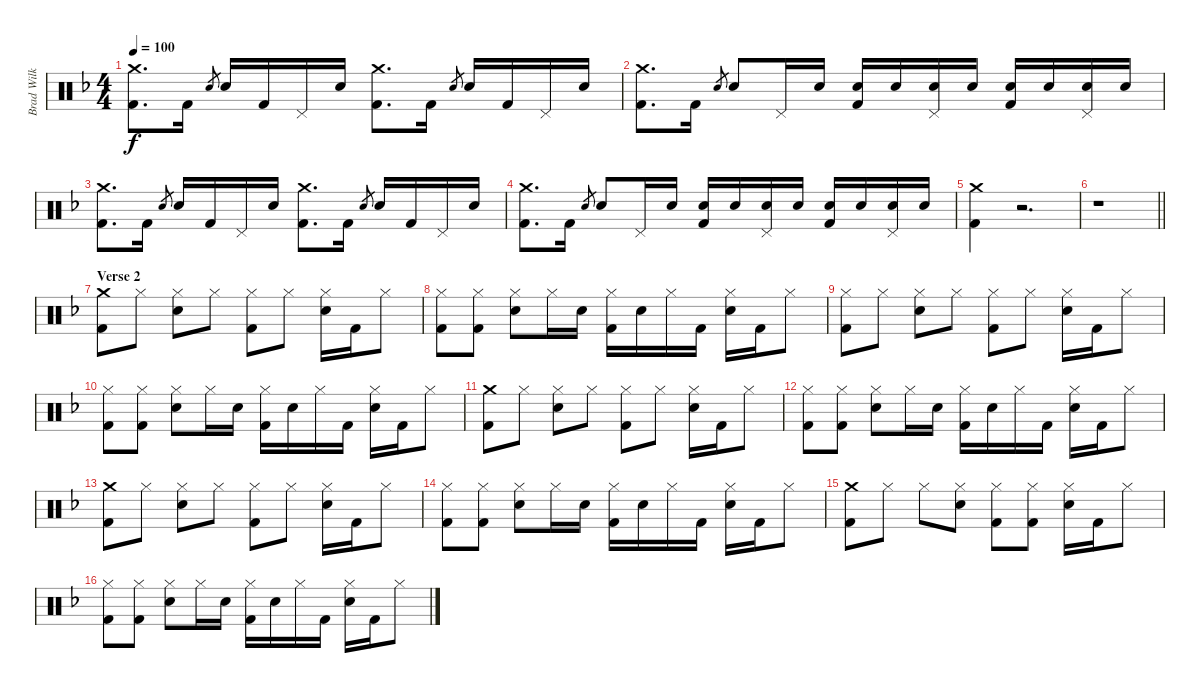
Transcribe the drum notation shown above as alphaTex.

\track ("Brad Wilk" "Brad Wilk") {instrument percussion}
\staff {score}
\articulation defaults
\ts (4 4)
\tempo 100
\clef neutral
\ks f
("Crash medium (hit)" "Kick (hit) 2").8{d dy f} "Kick (hit) 2".16 "Electric Snare (hit)".8{gr} "Electric Snare (hit)".16 "Kick (hit) 2".16 "Pedal Hi-Hat (hit)".16 "Electric Snare (hit)".16 ("Crash medium (hit)" "Kick (hit) 2").8{d} "Kick (hit) 2".16 "Electric Snare (hit)".8{gr} "Electric Snare (hit)".16 "Kick (hit) 2".16 "Pedal Hi-Hat (hit)".16 "Electric Snare (hit)".16 |
("Crash medium (hit)" "Kick (hit) 2").8{d} "Kick (hit) 2".16 "Electric Snare (hit)".8{gr} "Electric Snare (hit)".8 "Pedal Hi-Hat (hit)".16 "Electric Snare (hit)".16 ("Electric Snare (hit)" "Kick (hit) 2").16 "Electric Snare (hit)".16 ("Pedal Hi-Hat (hit)" "Electric Snare (hit)").16 "Electric Snare (hit)".16 ("Electric Snare (hit)" "Kick (hit) 2").16 "Electric Snare (hit)".16 ("Pedal Hi-Hat (hit)" "Electric Snare (hit)").16 "Electric Snare (hit)".16 |
("Crash medium (hit)" "Kick (hit) 2").8{d} "Kick (hit) 2".16 "Electric Snare (hit)".8{gr} "Electric Snare (hit)".16 "Kick (hit) 2".16 "Pedal Hi-Hat (hit)".16 "Electric Snare (hit)".16 ("Crash medium (hit)" "Kick (hit) 2").8{d} "Kick (hit) 2".16 "Electric Snare (hit)".8{gr} "Electric Snare (hit)".16 "Kick (hit) 2".16 "Pedal Hi-Hat (hit)".16 "Electric Snare (hit)".16 |
("Crash medium (hit)" "Kick (hit) 2").8{d} "Kick (hit) 2".16 "Electric Snare (hit)".8{gr} "Electric Snare (hit)".8 "Pedal Hi-Hat (hit)".16 "Electric Snare (hit)".16 ("Electric Snare (hit)" "Kick (hit) 2").16 "Electric Snare (hit)".16 ("Pedal Hi-Hat (hit)" "Electric Snare (hit)").16 "Electric Snare (hit)".16 ("Electric Snare (hit)" "Kick (hit) 2").16 "Electric Snare (hit)".16 ("Pedal Hi-Hat (hit)" "Electric Snare (hit)").16 "Electric Snare (hit)".16 |
("Crash medium (hit)" "Kick (hit) 2").4 r.2{d} |
\barLineRight lightlight
r.1 |
\section ("" "Verse 2")
("Crash medium (hit)" "Kick (hit) 2").8 "Hi-Hat (closed)".8 ("Hi-Hat (closed)" "Electric Snare (hit)").8 "Hi-Hat (closed)".8 ("Hi-Hat (closed)" "Kick (hit) 2").8 "Hi-Hat (closed)".8 ("Hi-Hat (closed)" "Electric Snare (hit)").16 "Kick (hit) 2".16 "Hi-Hat (closed)".8 |
("Hi-Hat (closed)" "Kick (hit) 2").8 ("Hi-Hat (closed)" "Kick (hit) 2").8 ("Hi-Hat (closed)" "Electric Snare (hit)").8 "Hi-Hat (closed)".16 "Electric Snare (hit)".16 ("Hi-Hat (closed)" "Kick (hit) 2").16 "Electric Snare (hit)".16 "Hi-Hat (closed)".16 "Kick (hit) 2".16 ("Hi-Hat (closed)" "Electric Snare (hit)").16 "Kick (hit) 2".16 "Hi-Hat (closed)".8 |
("Hi-Hat (closed)" "Kick (hit) 2").8 "Hi-Hat (closed)".8 ("Hi-Hat (closed)" "Electric Snare (hit)").8 "Hi-Hat (closed)".8 ("Hi-Hat (closed)" "Kick (hit) 2").8 "Hi-Hat (closed)".8 ("Hi-Hat (closed)" "Electric Snare (hit)").16 "Kick (hit) 2".16 "Hi-Hat (closed)".8 |
("Hi-Hat (closed)" "Kick (hit) 2").8 ("Hi-Hat (closed)" "Kick (hit) 2").8 ("Hi-Hat (closed)" "Electric Snare (hit)").8 "Hi-Hat (closed)".16 "Electric Snare (hit)".16 ("Hi-Hat (closed)" "Kick (hit) 2").16 "Electric Snare (hit)".16 "Hi-Hat (closed)".16 "Kick (hit) 2".16 ("Hi-Hat (closed)" "Electric Snare (hit)").16 "Kick (hit) 2".16 "Hi-Hat (closed)".8 |
("Crash medium (hit)" "Kick (hit) 2").8 "Hi-Hat (closed)".8 ("Hi-Hat (closed)" "Electric Snare (hit)").8 "Hi-Hat (closed)".8 ("Hi-Hat (closed)" "Kick (hit) 2").8 "Hi-Hat (closed)".8 ("Hi-Hat (closed)" "Electric Snare (hit)").16 "Kick (hit) 2".16 "Hi-Hat (closed)".8 |
("Hi-Hat (closed)" "Kick (hit) 2").8 ("Hi-Hat (closed)" "Kick (hit) 2").8 ("Hi-Hat (closed)" "Electric Snare (hit)").8 "Hi-Hat (closed)".16 "Electric Snare (hit)".16 ("Hi-Hat (closed)" "Kick (hit) 2").16 "Electric Snare (hit)".16 "Hi-Hat (closed)".16 "Kick (hit) 2".16 ("Hi-Hat (closed)" "Electric Snare (hit)").16 "Kick (hit) 2".16 "Hi-Hat (closed)".8 |
("Crash medium (hit)" "Kick (hit) 2").8 "Hi-Hat (closed)".8 ("Hi-Hat (closed)" "Electric Snare (hit)").8 "Hi-Hat (closed)".8 ("Hi-Hat (closed)" "Kick (hit) 2").8 "Hi-Hat (closed)".8 ("Hi-Hat (closed)" "Electric Snare (hit)").16 "Kick (hit) 2".16 "Hi-Hat (closed)".8 |
("Hi-Hat (closed)" "Kick (hit) 2").8 ("Hi-Hat (closed)" "Kick (hit) 2").8 ("Hi-Hat (closed)" "Electric Snare (hit)").8 "Hi-Hat (closed)".16 "Electric Snare (hit)".16 ("Hi-Hat (closed)" "Kick (hit) 2").16 "Electric Snare (hit)".16 "Hi-Hat (closed)".16 "Kick (hit) 2".16 ("Hi-Hat (closed)" "Electric Snare (hit)").16 "Kick (hit) 2".16 "Hi-Hat (closed)".8 |
("Crash medium (hit)" "Kick (hit) 2").8 "Hi-Hat (closed)".8 "Hi-Hat (closed)".8 ("Hi-Hat (closed)" "Electric Snare (hit)").8 ("Hi-Hat (closed)" "Kick (hit) 2").8 ("Hi-Hat (closed)" "Kick (hit) 2").8 ("Hi-Hat (closed)" "Electric Snare (hit)").16 "Kick (hit) 2".16 "Hi-Hat (closed)".8 |
("Hi-Hat (closed)" "Kick (hit) 2").8 ("Hi-Hat (closed)" "Kick (hit) 2").8 ("Hi-Hat (closed)" "Electric Snare (hit)").8 "Hi-Hat (closed)".16 "Electric Snare (hit)".16 ("Hi-Hat (closed)" "Kick (hit) 2").16 "Electric Snare (hit)".16 "Hi-Hat (closed)".16 "Kick (hit) 2".16 ("Hi-Hat (closed)" "Electric Snare (hit)").16 "Kick (hit) 2".16 "Hi-Hat (closed)".8
